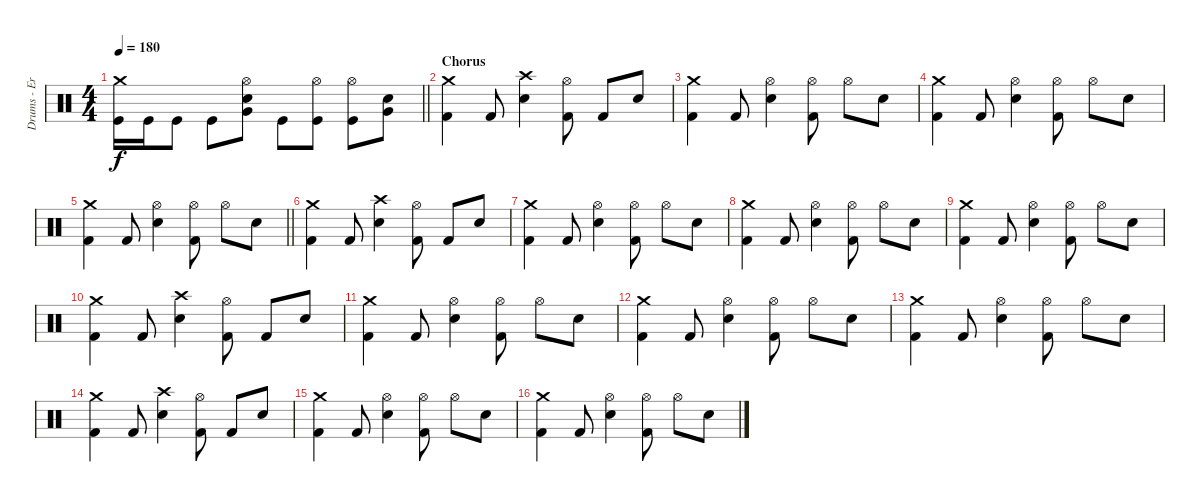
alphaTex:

\track ("Drums - Eric Young" "Drums - Er") {instrument percussion}
\staff {score}
\articulation defaults
\ts (4 4)
\tempo 180
\clef neutral
\barLineRight lightlight
\ks c
("Crash medium (hit)" "Kick (hit)").16{dy f} "Kick (hit)".16 "Kick (hit)".8 "Kick (hit)".8 ("Hi-Hat (open)" "Snare (hit) 2" "Very Low Tom (hit)").8 "Kick (hit)".8 ("Hi-Hat (open)" "Kick (hit)").8 ("Hi-Hat (open)" "Kick (hit)").8 ("Snare (hit) 2" "Very Low Tom (hit)").8 |
\section ("" "Chorus")
("Crash medium (hit)" "Kick (hit) 2").4 "Kick (hit) 2".8 ("Crash high (hit)" "Electric Snare (hit)").4 ("Hi-Hat (open)" "Kick (hit) 2").8 "Kick (hit) 2".8 "Electric Snare (hit)".8 |
("Crash medium (hit)" "Kick (hit) 2").4 "Kick (hit) 2".8 ("Hi-Hat (open)" "Electric Snare (hit)").4 ("Hi-Hat (open)" "Kick (hit) 2").8 "Hi-Hat (open)".8 "Electric Snare (hit)".8 |
("Crash medium (hit)" "Kick (hit) 2").4 "Kick (hit) 2".8 ("Hi-Hat (open)" "Electric Snare (hit)").4 ("Hi-Hat (open)" "Kick (hit) 2").8 "Hi-Hat (open)".8 "Electric Snare (hit)".8 |
\barLineRight lightlight
("Crash medium (hit)" "Kick (hit) 2").4 "Kick (hit) 2".8 ("Hi-Hat (open)" "Electric Snare (hit)").4 ("Hi-Hat (open)" "Kick (hit) 2").8 "Hi-Hat (open)".8 "Electric Snare (hit)".8 |
("Crash medium (hit)" "Kick (hit) 2").4 "Kick (hit) 2".8 ("Crash high (hit)" "Electric Snare (hit)").4 ("Hi-Hat (open)" "Kick (hit) 2").8 "Kick (hit) 2".8 "Electric Snare (hit)".8 |
("Crash medium (hit)" "Kick (hit) 2").4 "Kick (hit) 2".8 ("Hi-Hat (open)" "Electric Snare (hit)").4 ("Hi-Hat (open)" "Kick (hit) 2").8 "Hi-Hat (open)".8 "Electric Snare (hit)".8 |
("Crash medium (hit)" "Kick (hit) 2").4 "Kick (hit) 2".8 ("Hi-Hat (open)" "Electric Snare (hit)").4 ("Hi-Hat (open)" "Kick (hit) 2").8 "Hi-Hat (open)".8 "Electric Snare (hit)".8 |
("Crash medium (hit)" "Kick (hit) 2").4 "Kick (hit) 2".8 ("Hi-Hat (open)" "Electric Snare (hit)").4 ("Hi-Hat (open)" "Kick (hit) 2").8 "Hi-Hat (open)".8 "Electric Snare (hit)".8 |
("Crash medium (hit)" "Kick (hit) 2").4 "Kick (hit) 2".8 ("Crash high (hit)" "Electric Snare (hit)").4 ("Hi-Hat (open)" "Kick (hit) 2").8 "Kick (hit) 2".8 "Electric Snare (hit)".8 |
("Crash medium (hit)" "Kick (hit) 2").4 "Kick (hit) 2".8 ("Hi-Hat (open)" "Electric Snare (hit)").4 ("Hi-Hat (open)" "Kick (hit) 2").8 "Hi-Hat (open)".8 "Electric Snare (hit)".8 |
("Crash medium (hit)" "Kick (hit) 2").4 "Kick (hit) 2".8 ("Hi-Hat (open)" "Electric Snare (hit)").4 ("Hi-Hat (open)" "Kick (hit) 2").8 "Hi-Hat (open)".8 "Electric Snare (hit)".8 |
("Crash medium (hit)" "Kick (hit) 2").4 "Kick (hit) 2".8 ("Hi-Hat (open)" "Electric Snare (hit)").4 ("Hi-Hat (open)" "Kick (hit) 2").8 "Hi-Hat (open)".8 "Electric Snare (hit)".8 |
("Crash medium (hit)" "Kick (hit) 2").4 "Kick (hit) 2".8 ("Crash high (hit)" "Electric Snare (hit)").4 ("Hi-Hat (open)" "Kick (hit) 2").8 "Kick (hit) 2".8 "Electric Snare (hit)".8 |
("Crash medium (hit)" "Kick (hit) 2").4 "Kick (hit) 2".8 ("Hi-Hat (open)" "Electric Snare (hit)").4 ("Hi-Hat (open)" "Kick (hit) 2").8 "Hi-Hat (open)".8 "Electric Snare (hit)".8 |
("Crash medium (hit)" "Kick (hit) 2").4 "Kick (hit) 2".8 ("Hi-Hat (open)" "Electric Snare (hit)").4 ("Hi-Hat (open)" "Kick (hit) 2").8 "Hi-Hat (open)".8 "Electric Snare (hit)".8
